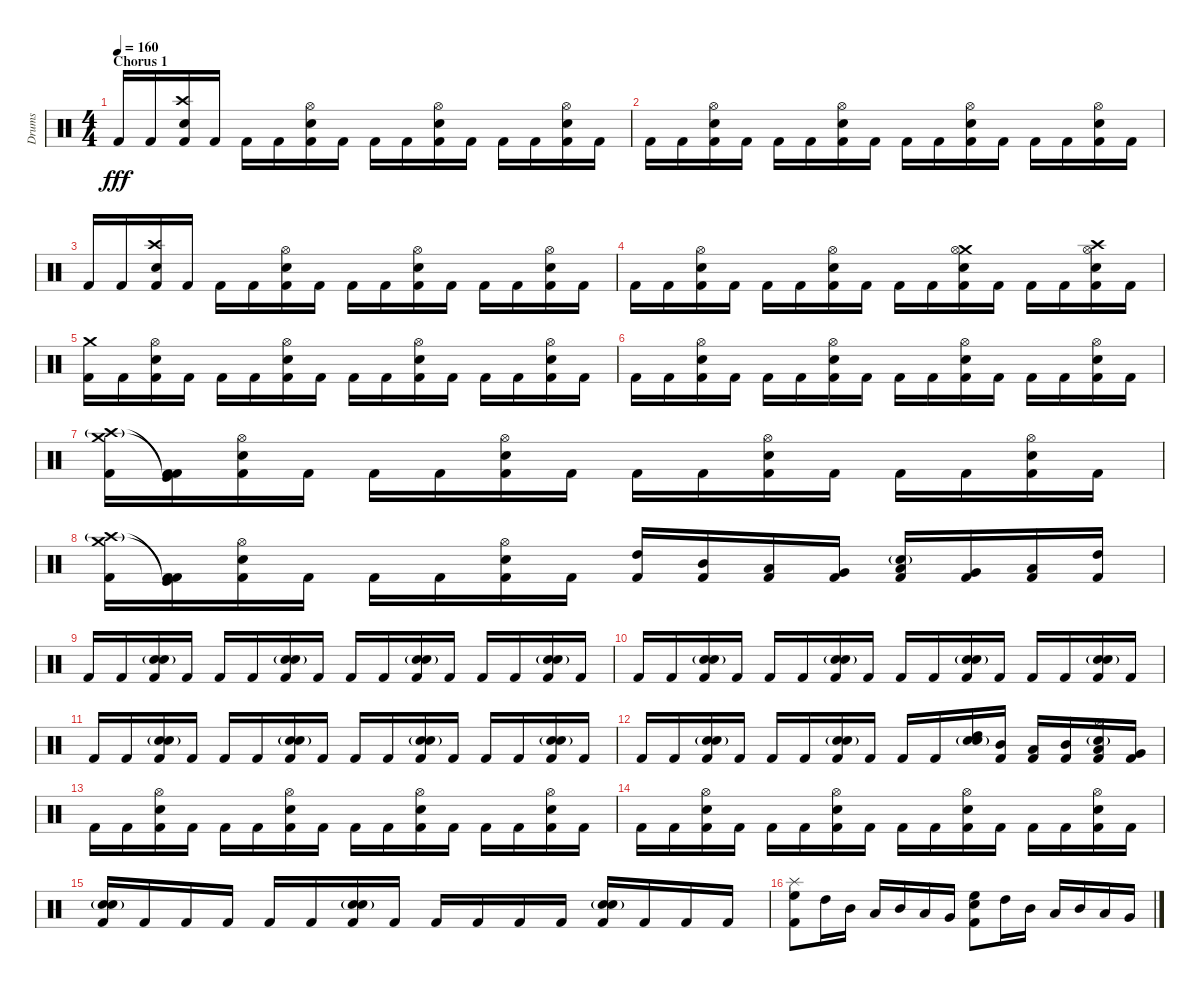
\track ("Drums" "Drums") {instrument percussion}
\staff {score}
\articulation defaults
\ts (4 4)
\section ("" "Chorus 1")
\tempo 160
\clef neutral
\ks c "Kick (hit) 2".16{dy fff} "Kick (hit) 2".16
("Crash high (hit)" "Snare (hit) 2" "Kick (hit) 2").16 "Kick (hit) 2".16 "Kick (hit) 2".16 "Kick (hit) 2".16 ("Hi-Hat (open)" "Snare (hit) 2" "Kick (hit) 2").16 "Kick (hit) 2".16 "Kick (hit) 2".16 "Kick (hit) 2".16 ("Hi-Hat (open)" "Snare (hit) 2" "Kick (hit) 2").16 "Kick (hit) 2".16 "Kick (hit) 2".16 "Kick (hit) 2".16 ("Hi-Hat (open)" "Snare (hit) 2" "Kick (hit) 2").16 "Kick (hit) 2".16 |
"Kick (hit) 2".16 "Kick (hit) 2".16 ("Hi-Hat (open)" "Snare (hit) 2" "Kick (hit) 2").16 "Kick (hit) 2".16 "Kick (hit) 2".16 "Kick (hit) 2".16 ("Hi-Hat (open)" "Snare (hit) 2" "Kick (hit) 2").16 "Kick (hit) 2".16 "Kick (hit) 2".16 "Kick (hit) 2".16 ("Hi-Hat (open)" "Snare (hit) 2" "Kick (hit) 2").16 "Kick (hit) 2".16 "Kick (hit) 2".16 "Kick (hit) 2".16 ("Hi-Hat (open)" "Snare (hit) 2" "Kick (hit) 2").16 "Kick (hit) 2".16 |
"Kick (hit) 2".16 "Kick (hit) 2".16 ("Crash high (hit)" "Snare (hit) 2" "Kick (hit) 2").16 "Kick (hit) 2".16 "Kick (hit) 2".16 "Kick (hit) 2".16 ("Hi-Hat (open)" "Snare (hit) 2" "Kick (hit) 2").16 "Kick (hit) 2".16 "Kick (hit) 2".16 "Kick (hit) 2".16 ("Hi-Hat (open)" "Snare (hit) 2" "Kick (hit) 2").16 "Kick (hit) 2".16 "Kick (hit) 2".16 "Kick (hit) 2".16 ("Hi-Hat (open)" "Snare (hit) 2" "Kick (hit) 2").16 "Kick (hit) 2".16 |
"Kick (hit) 2".16 "Kick (hit) 2".16 ("Hi-Hat (open)" "Snare (hit) 2" "Kick (hit) 2").16 "Kick (hit) 2".16 "Kick (hit) 2".16 "Kick (hit) 2".16 ("Hi-Hat (open)" "Snare (hit) 2" "Kick (hit) 2").16 "Kick (hit) 2".16 "Kick (hit) 2".16 "Kick (hit) 2".16 ("Crash medium (hit)" "Hi-Hat (open)" "Snare (hit) 2" "Kick (hit) 2").16 "Kick (hit) 2".16 "Kick (hit) 2".16 "Kick (hit) 2".16 ("Crash high (hit)" "Hi-Hat (open)" "Snare (hit) 2" "Kick (hit) 2").16 "Kick (hit) 2".16 |
("Crash medium (hit)" "Kick (hit) 2").16 "Kick (hit) 2".16 ("Hi-Hat (open)" "Snare (hit) 2" "Kick (hit) 2").16 "Kick (hit) 2".16 "Kick (hit) 2".16 "Kick (hit) 2".16 ("Hi-Hat (open)" "Snare (hit) 2" "Kick (hit) 2").16 "Kick (hit) 2".16 "Kick (hit) 2".16 "Kick (hit) 2".16 ("Hi-Hat (open)" "Snare (hit) 2" "Kick (hit) 2").16 "Kick (hit) 2".16 "Kick (hit) 2".16 "Kick (hit) 2".16 ("Hi-Hat (open)" "Snare (hit) 2" "Kick (hit) 2").16 "Kick (hit) 2".16 |
"Kick (hit) 2".16 "Kick (hit) 2".16 ("Hi-Hat (open)" "Snare (hit) 2" "Kick (hit) 2").16 "Kick (hit) 2".16 "Kick (hit) 2".16 "Kick (hit) 2".16 ("Hi-Hat (open)" "Snare (hit) 2" "Kick (hit) 2").16 "Kick (hit) 2".16 "Kick (hit) 2".16 "Kick (hit) 2".16 ("Hi-Hat (open)" "Snare (hit) 2" "Kick (hit) 2").16 "Kick (hit) 2".16 "Kick (hit) 2".16 "Kick (hit) 2".16 ("Hi-Hat (open)" "Snare (hit) 2" "Kick (hit) 2").16 "Kick (hit) 2".16 |
("Crash medium (hit)" "Crash high (hit)"{g} "Kick (hit) 2").16 ("Kick (hit) 2"{t} "Kick (hit)"{t} "Kick (hit) 2").16 ("Hi-Hat (open)" "Snare (hit) 2" "Kick (hit) 2").16 "Kick (hit) 2".16 "Kick (hit) 2".16 "Kick (hit) 2".16 ("Hi-Hat (open)" "Snare (hit) 2" "Kick (hit) 2").16 "Kick (hit) 2".16 "Kick (hit) 2".16 "Kick (hit) 2".16 ("Hi-Hat (open)" "Snare (hit) 2" "Kick (hit) 2").16 "Kick (hit) 2".16 "Kick (hit) 2".16 "Kick (hit) 2".16 ("Hi-Hat (open)" "Snare (hit) 2" "Kick (hit) 2").16 "Kick (hit) 2".16 |
("Crash medium (hit)" "Crash high (hit)"{g} "Kick (hit) 2").16 ("Kick (hit) 2"{t} "Kick (hit)"{t} "Kick (hit) 2").16 ("Hi-Hat (open)" "Snare (hit) 2" "Kick (hit) 2").16 "Kick (hit) 2".16 "Kick (hit) 2".16 "Kick (hit) 2".16 ("Hi-Hat (open)" "Snare (hit) 2" "Kick (hit) 2").16 "Kick (hit) 2".16 ("High Tom (hit)" "Kick (hit) 2").16 ("Mid Tom (hit)" "Kick (hit) 2").16 ("Low Tom (hit)" "Kick (hit) 2").16 ("Very Low Tom (hit)" "Kick (hit) 2").16 ("Snare (hit)"{g} "Low Tom (hit)" "Kick (hit) 2").16 ("Very Low Tom (hit)" "Kick (hit) 2").16 ("Low Floor Tom (hit)" "Kick (hit) 2").16 ("High Tom (hit)" "Kick (hit) 2").16 |
"Kick (hit) 2".16 "Kick (hit) 2".16 ("Snare (hit) 2"{g} "Electric Snare (hit)" "Kick (hit) 2").16 "Kick (hit) 2".16 "Kick (hit) 2".16 "Kick (hit) 2".16 ("Snare (hit) 2"{g} "Electric Snare (hit)" "Kick (hit) 2").16 "Kick (hit) 2".16 "Kick (hit) 2".16 "Kick (hit) 2".16 ("Snare (hit) 2"{g} "Electric Snare (hit)" "Kick (hit) 2").16 "Kick (hit) 2".16 "Kick (hit) 2".16 "Kick (hit) 2".16 ("Snare (hit) 2"{g} "Electric Snare (hit)" "Kick (hit) 2").16 "Kick (hit) 2".16 |
"Kick (hit) 2".16 "Kick (hit) 2".16 ("Snare (hit) 2"{g} "Electric Snare (hit)" "Kick (hit) 2").16 "Kick (hit) 2".16 "Kick (hit) 2".16 "Kick (hit) 2".16 ("Snare (hit) 2"{g} "Electric Snare (hit)" "Kick (hit) 2").16 "Kick (hit) 2".16 "Kick (hit) 2".16 "Kick (hit) 2".16 ("Snare (hit) 2"{g} "Electric Snare (hit)" "Kick (hit) 2").16 "Kick (hit) 2".16 "Kick (hit) 2".16 "Kick (hit) 2".16 ("Snare (hit) 2"{g} "Electric Snare (hit)" "Kick (hit) 2").16 "Kick (hit) 2".16 |
"Kick (hit) 2".16 "Kick (hit) 2".16 ("Snare (hit) 2"{g} "Electric Snare (hit)" "Kick (hit) 2").16 "Kick (hit) 2".16 "Kick (hit) 2".16 "Kick (hit) 2".16 ("Snare (hit) 2"{g} "Electric Snare (hit)" "Kick (hit) 2").16 "Kick (hit) 2".16 "Kick (hit) 2".16 "Kick (hit) 2".16 ("Snare (hit) 2"{g} "Electric Snare (hit)" "Kick (hit) 2").16 "Kick (hit) 2".16 "Kick (hit) 2".16 "Kick (hit) 2".16 ("Snare (hit) 2"{g} "Electric Snare (hit)" "Kick (hit) 2").16 "Kick (hit) 2".16 |
"Kick (hit) 2".16 "Kick (hit) 2".16 ("Snare (hit) 2"{g} "Electric Snare (hit)" "Kick (hit) 2").16 "Kick (hit) 2".16 "Kick (hit) 2".16 "Kick (hit) 2".16 ("Snare (hit) 2"{g} "Electric Snare (hit)" "Kick (hit) 2").16 "Kick (hit) 2".16 "Kick (hit) 2".16 "Kick (hit) 2".16 ("Snare (hit) 2"{g} "Electric Snare (hit)" "High Tom (hit)").16 ("Mid Tom (hit)" "Kick (hit) 2").16 ("Low Tom (hit)" "Kick (hit) 2").16 ("Mid Tom (hit)" "Kick (hit) 2").16 ("Hi-Hat (open)" "Snare (hit) 2"{g} "Low Tom (hit)" "Kick (hit) 2").16 ("Very Low Tom (hit)" "Kick (hit) 2").16 |
"Kick (hit) 2".16 "Kick (hit) 2".16 ("Hi-Hat (open)" "Snare (hit) 2" "Kick (hit) 2").16 "Kick (hit) 2".16 "Kick (hit) 2".16 "Kick (hit) 2".16 ("Hi-Hat (open)" "Snare (hit) 2" "Kick (hit) 2").16 "Kick (hit) 2".16 "Kick (hit) 2".16 "Kick (hit) 2".16 ("Hi-Hat (open)" "Snare (hit) 2" "Kick (hit) 2").16 "Kick (hit) 2".16 "Kick (hit) 2".16 "Kick (hit) 2".16 ("Hi-Hat (open)" "Snare (hit) 2" "Kick (hit) 2").16 "Kick (hit) 2".16 |
"Kick (hit) 2".16 "Kick (hit) 2".16 ("Hi-Hat (open)" "Snare (hit) 2" "Kick (hit) 2").16 "Kick (hit) 2".16 "Kick (hit) 2".16 "Kick (hit) 2".16 ("Hi-Hat (open)" "Snare (hit) 2" "Kick (hit) 2").16 "Kick (hit) 2".16 "Kick (hit) 2".16 "Kick (hit) 2".16 ("Hi-Hat (open)" "Snare (hit) 2" "Kick (hit) 2").16 "Kick (hit) 2".16 "Kick (hit) 2".16 "Kick (hit) 2".16 ("Hi-Hat (open)" "Snare (hit) 2" "Kick (hit) 2").16 "Kick (hit) 2".16 |
("Snare (hit) 2"{g} "Electric Snare (hit)" "Kick (hit) 2").16 "Kick (hit) 2".16 "Kick (hit) 2".16 "Kick (hit) 2".16 "Kick (hit) 2".16 "Kick (hit) 2".16 ("Snare (hit) 2"{g} "Electric Snare (hit)" "Kick (hit) 2").16 "Kick (hit) 2".16 "Kick (hit) 2".16 "Kick (hit) 2".16 "Kick (hit) 2".16 "Kick (hit) 2".16 ("Snare (hit) 2"{g} "Electric Snare (hit)" "Kick (hit) 2").16 "Kick (hit) 2".16 "Kick (hit) 2".16 "Kick (hit) 2".16 |
("Splash (hit)" "High Floor Tom (hit)" "Kick (hit) 2").8 "High Tom (hit)".16 "Mid Tom (hit)".16 "Low Tom (hit)".16 "Mid Tom (hit)".16 "Low Tom (hit)".16 "Very Low Tom (hit)".16 ("Snare (hit) 2" "High Floor Tom (hit)" "Kick (hit) 2").8 "High Tom (hit)".16 "Mid Tom (hit)".16 "Low Tom (hit)".16 "Mid Tom (hit)".16 "Low Tom (hit)".16 "Very Low Tom (hit)".16
